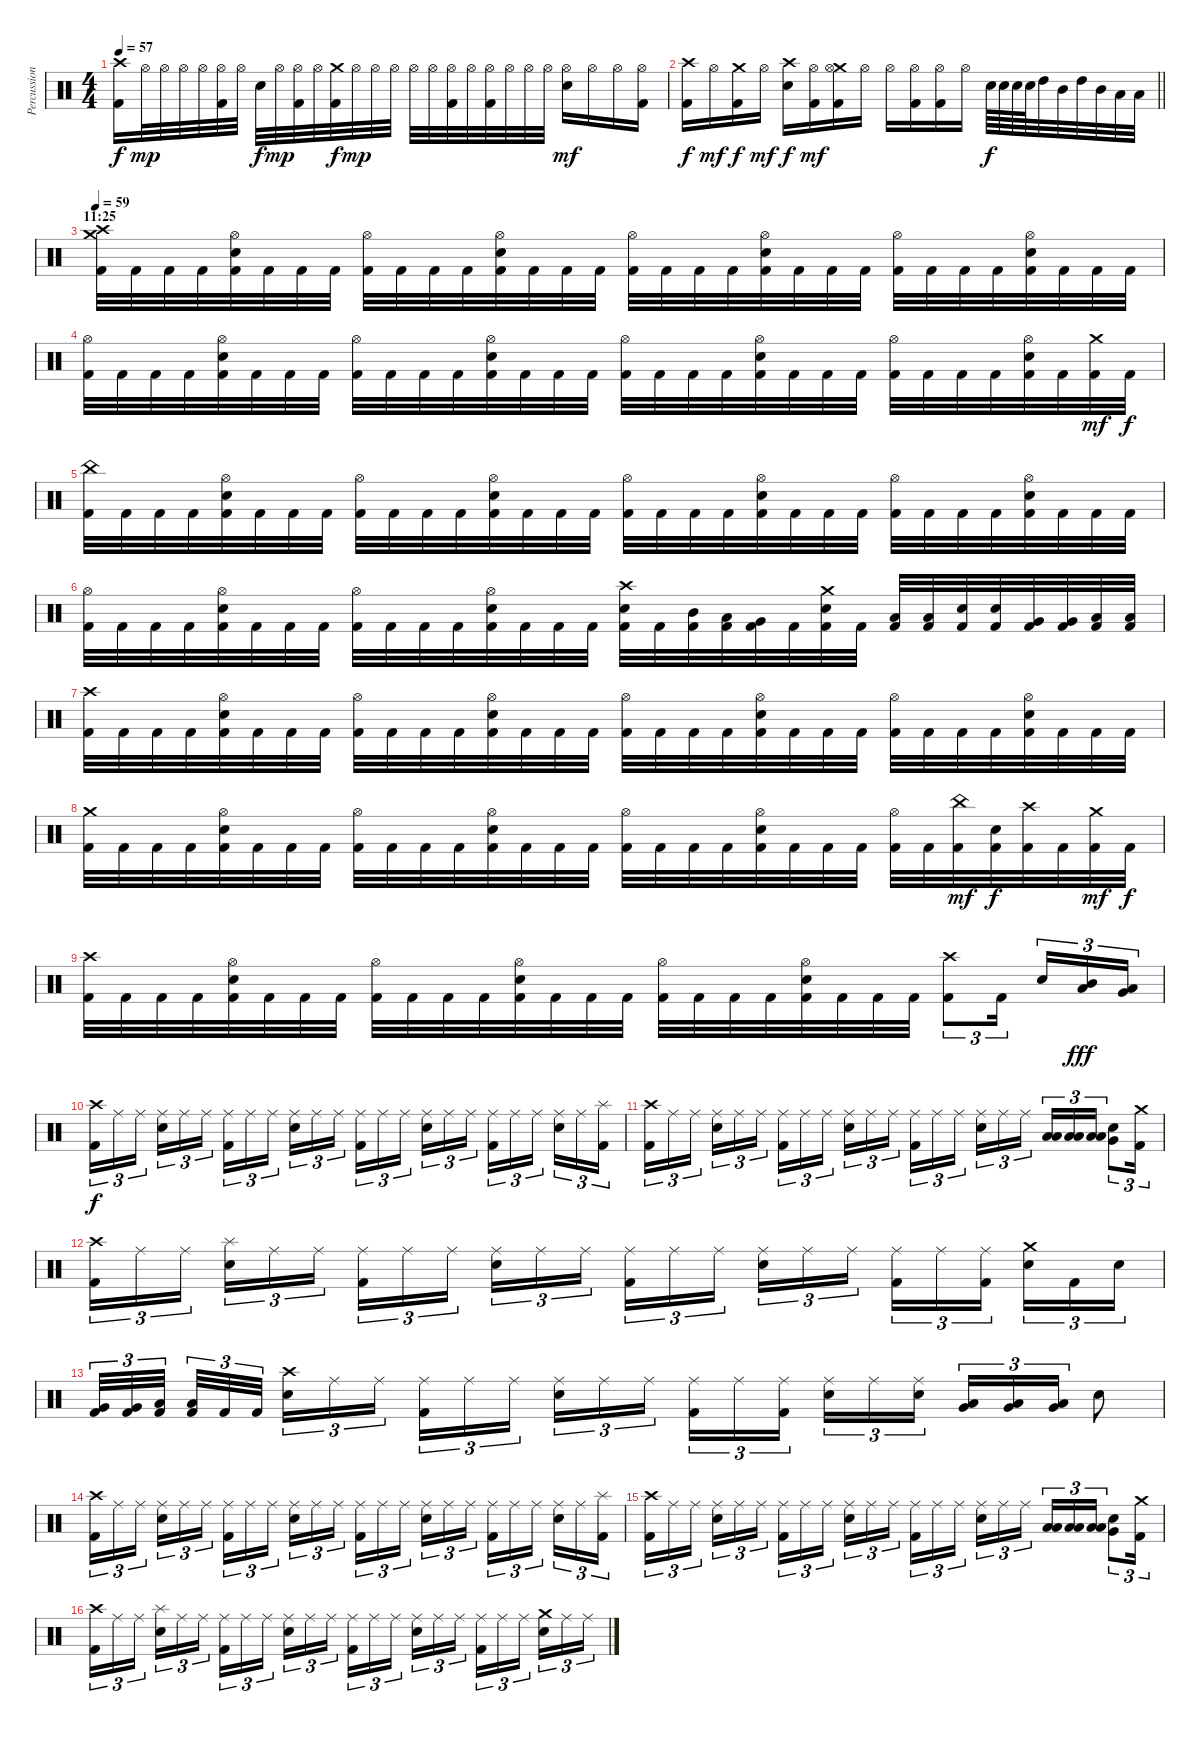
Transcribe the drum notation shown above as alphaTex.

\track ("Percussions" "Percussion") {instrument percussion}
\staff {score}
\articulation defaults
\ts (4 4)
\tempo 57
\clef neutral
\ks c
("Crash high (hit)" "Kick (hit) 2").16{dy f} "Hi-Hat (open)".32{dy mp} "Hi-Hat (open)".32 "Hi-Hat (open)".32 "Hi-Hat (open)".32 ("Hi-Hat (open)" "Kick (hit) 2").32 "Hi-Hat (open)".32 "Snare (hit) 2".32{dy f} "Hi-Hat (open)".32{dy mp} ("Hi-Hat (open)" "Kick (hit) 2").32 "Hi-Hat (open)".32 ("Crash medium (hit)" "Kick (hit) 2").32{dy f} "Hi-Hat (open)".32{dy mp} "Hi-Hat (open)".32 "Hi-Hat (open)".32 "Hi-Hat (open)".32 "Hi-Hat (open)".32 ("Hi-Hat (open)" "Kick (hit) 2").32 "Hi-Hat (open)".32 ("Hi-Hat (open)" "Kick (hit) 2").32 "Hi-Hat (open)".32 "Hi-Hat (open)".32 "Hi-Hat (open)".32 ("Hi-Hat (open)" "Snare (hit) 2").16{dy mf} "Hi-Hat (open)".16 "Hi-Hat (open)".16 ("Hi-Hat (open)" "Kick (hit) 2").16 |
\barLineRight lightlight
("Crash high (hit)" "Kick (hit) 2").16{dy f} "Hi-Hat (open)".16{dy mf} ("Crash medium (hit)" "Kick (hit) 2").16{dy f} "Hi-Hat (open)".16{dy mf} ("Crash high (hit)" "Snare (hit) 2").16{dy f} ("Hi-Hat (open)" "Kick (hit) 2").16{dy mf} ("Crash medium (hit)" "Hi-Hat (open)" "Kick (hit) 2").16 "Hi-Hat (open)".16 "Hi-Hat (open)".16 ("Hi-Hat (open)" "Kick (hit) 2").16 ("Hi-Hat (open)" "Kick (hit) 2").16 "Hi-Hat (open)".16 "Snare (hit) 2".64{dy f} "Snare (hit) 2".64 "Snare (hit) 2".64 "Snare (hit) 2".64 "High Tom (hit)".32 "Mid Tom (hit)".32 "High Tom (hit)".32 "Mid Tom (hit)".32 "Low Tom (hit)".32 "Low Tom (hit)".32 |
\section ("" "11:25")
\tempo 59
("Crash high (hit)" "Crash medium (hit)" "Kick (hit) 2").32 "Kick (hit) 2".32 "Kick (hit) 2".32 "Kick (hit) 2".32 ("Hi-Hat (open)" "Snare (hit) 2" "Kick (hit) 2").32 "Kick (hit) 2".32 "Kick (hit) 2".32 "Kick (hit) 2".32 ("Hi-Hat (open)" "Kick (hit) 2").32 "Kick (hit) 2".32 "Kick (hit) 2".32 "Kick (hit) 2".32 ("Hi-Hat (open)" "Snare (hit) 2" "Kick (hit) 2").32 "Kick (hit) 2".32 "Kick (hit) 2".32 "Kick (hit) 2".32 ("Hi-Hat (open)" "Kick (hit) 2").32 "Kick (hit) 2".32 "Kick (hit) 2".32 "Kick (hit) 2".32 ("Hi-Hat (open)" "Snare (hit) 2" "Kick (hit) 2").32 "Kick (hit) 2".32 "Kick (hit) 2".32 "Kick (hit) 2".32 ("Hi-Hat (open)" "Kick (hit) 2").32 "Kick (hit) 2".32 "Kick (hit) 2".32 "Kick (hit) 2".32 ("Hi-Hat (open)" "Snare (hit) 2" "Kick (hit) 2").32 "Kick (hit) 2".32 "Kick (hit) 2".32 "Kick (hit) 2".32 |
("Hi-Hat (open)" "Kick (hit) 2").32 "Kick (hit) 2".32 "Kick (hit) 2".32 "Kick (hit) 2".32 ("Hi-Hat (open)" "Snare (hit) 2" "Kick (hit) 2").32 "Kick (hit) 2".32 "Kick (hit) 2".32 "Kick (hit) 2".32 ("Hi-Hat (open)" "Kick (hit) 2").32 "Kick (hit) 2".32 "Kick (hit) 2".32 "Kick (hit) 2".32 ("Hi-Hat (open)" "Snare (hit) 2" "Kick (hit) 2").32 "Kick (hit) 2".32 "Kick (hit) 2".32 "Kick (hit) 2".32 ("Hi-Hat (open)" "Kick (hit) 2").32 "Kick (hit) 2".32 "Kick (hit) 2".32 "Kick (hit) 2".32 ("Hi-Hat (open)" "Snare (hit) 2" "Kick (hit) 2").32 "Kick (hit) 2".32 "Kick (hit) 2".32 "Kick (hit) 2".32 ("Hi-Hat (open)" "Kick (hit) 2").32 "Kick (hit) 2".32 "Kick (hit) 2".32 "Kick (hit) 2".32 ("Hi-Hat (open)" "Snare (hit) 2" "Kick (hit) 2").32 "Kick (hit) 2".32 ("Crash medium (hit)" "Kick (hit) 2").32{dy mf} "Kick (hit) 2".32{dy f} |
("China (hit)" "Kick (hit) 2").32 "Kick (hit) 2".32 "Kick (hit) 2".32 "Kick (hit) 2".32 ("Hi-Hat (open)" "Snare (hit) 2" "Kick (hit) 2").32 "Kick (hit) 2".32 "Kick (hit) 2".32 "Kick (hit) 2".32 ("Hi-Hat (open)" "Kick (hit) 2").32 "Kick (hit) 2".32 "Kick (hit) 2".32 "Kick (hit) 2".32 ("Hi-Hat (open)" "Snare (hit) 2" "Kick (hit) 2").32 "Kick (hit) 2".32 "Kick (hit) 2".32 "Kick (hit) 2".32 ("Hi-Hat (open)" "Kick (hit) 2").32 "Kick (hit) 2".32 "Kick (hit) 2".32 "Kick (hit) 2".32 ("Hi-Hat (open)" "Snare (hit) 2" "Kick (hit) 2").32 "Kick (hit) 2".32 "Kick (hit) 2".32 "Kick (hit) 2".32 ("Hi-Hat (open)" "Kick (hit) 2").32 "Kick (hit) 2".32 "Kick (hit) 2".32 "Kick (hit) 2".32 ("Hi-Hat (open)" "Snare (hit) 2" "Kick (hit) 2").32 "Kick (hit) 2".32 "Kick (hit) 2".32 "Kick (hit) 2".32 |
("Hi-Hat (open)" "Kick (hit) 2").32 "Kick (hit) 2".32 "Kick (hit) 2".32 "Kick (hit) 2".32 ("Hi-Hat (open)" "Snare (hit) 2" "Kick (hit) 2").32 "Kick (hit) 2".32 "Kick (hit) 2".32 "Kick (hit) 2".32 ("Hi-Hat (open)" "Kick (hit) 2").32 "Kick (hit) 2".32 "Kick (hit) 2".32 "Kick (hit) 2".32 ("Hi-Hat (open)" "Snare (hit) 2" "Kick (hit) 2").32 "Kick (hit) 2".32 "Kick (hit) 2".32 "Kick (hit) 2".32 ("Crash high (hit)" "Snare (hit) 2" "Kick (hit) 2").32 "Kick (hit) 2".32 ("Mid Tom (hit)" "Kick (hit) 2").32 ("Low Tom (hit)" "Kick (hit) 2").32 ("Very Low Tom (hit)" "Kick (hit) 2").32 "Kick (hit) 2".32 ("Crash medium (hit)" "Snare (hit) 2" "Kick (hit) 2").32 "Kick (hit) 2".32 ("Low Tom (hit)" "Kick (hit) 2").32 ("Low Tom (hit)" "Kick (hit) 2").32 ("Snare (hit) 2" "Kick (hit) 2").32 ("Snare (hit) 2" "Kick (hit) 2").32 ("Very Low Tom (hit)" "Kick (hit) 2").32 ("Very Low Tom (hit)" "Kick (hit) 2").32 ("Low Floor Tom (hit)" "Kick (hit) 2").32 ("Low Floor Tom (hit)" "Kick (hit) 2").32 |
("Crash high (hit)" "Kick (hit) 2").32 "Kick (hit) 2".32 "Kick (hit) 2".32 "Kick (hit) 2".32 ("Hi-Hat (open)" "Snare (hit) 2" "Kick (hit) 2").32 "Kick (hit) 2".32 "Kick (hit) 2".32 "Kick (hit) 2".32 ("Hi-Hat (open)" "Kick (hit) 2").32 "Kick (hit) 2".32 "Kick (hit) 2".32 "Kick (hit) 2".32 ("Hi-Hat (open)" "Snare (hit) 2" "Kick (hit) 2").32 "Kick (hit) 2".32 "Kick (hit) 2".32 "Kick (hit) 2".32 ("Hi-Hat (open)" "Kick (hit) 2").32 "Kick (hit) 2".32 "Kick (hit) 2".32 "Kick (hit) 2".32 ("Hi-Hat (open)" "Snare (hit) 2" "Kick (hit) 2").32 "Kick (hit) 2".32 "Kick (hit) 2".32 "Kick (hit) 2".32 ("Hi-Hat (open)" "Kick (hit) 2").32 "Kick (hit) 2".32 "Kick (hit) 2".32 "Kick (hit) 2".32 ("Hi-Hat (open)" "Snare (hit) 2" "Kick (hit) 2").32 "Kick (hit) 2".32 "Kick (hit) 2".32 "Kick (hit) 2".32 |
("Crash medium (hit)" "Kick (hit) 2").32 "Kick (hit) 2".32 "Kick (hit) 2".32 "Kick (hit) 2".32 ("Hi-Hat (open)" "Snare (hit) 2" "Kick (hit) 2").32 "Kick (hit) 2".32 "Kick (hit) 2".32 "Kick (hit) 2".32 ("Hi-Hat (open)" "Kick (hit) 2").32 "Kick (hit) 2".32 "Kick (hit) 2".32 "Kick (hit) 2".32 ("Hi-Hat (open)" "Snare (hit) 2" "Kick (hit) 2").32 "Kick (hit) 2".32 "Kick (hit) 2".32 "Kick (hit) 2".32 ("Hi-Hat (open)" "Kick (hit) 2").32 "Kick (hit) 2".32 "Kick (hit) 2".32 "Kick (hit) 2".32 ("Hi-Hat (open)" "Snare (hit) 2" "Kick (hit) 2").32 "Kick (hit) 2".32 "Kick (hit) 2".32 "Kick (hit) 2".32 ("Hi-Hat (open)" "Kick (hit) 2").32 "Kick (hit) 2".32 ("China (hit)" "Kick (hit) 2").32{dy mf} ("Snare (hit) 2" "Kick (hit) 2").32{dy f} ("Crash high (hit)" "Kick (hit) 2").32 "Kick (hit) 2".32 ("Crash medium (hit)" "Kick (hit) 2").32{dy mf} "Kick (hit) 2".32{dy f} |
("Crash high (hit)" "Kick (hit) 2").32 "Kick (hit) 2".32 "Kick (hit) 2".32 "Kick (hit) 2".32 ("Hi-Hat (open)" "Snare (hit) 2" "Kick (hit) 2").32 "Kick (hit) 2".32 "Kick (hit) 2".32 "Kick (hit) 2".32 ("Hi-Hat (open)" "Kick (hit) 2").32 "Kick (hit) 2".32 "Kick (hit) 2".32 "Kick (hit) 2".32 ("Hi-Hat (open)" "Snare (hit) 2" "Kick (hit) 2").32 "Kick (hit) 2".32 "Kick (hit) 2".32 "Kick (hit) 2".32 ("Hi-Hat (open)" "Kick (hit) 2").32 "Kick (hit) 2".32 "Kick (hit) 2".32 "Kick (hit) 2".32 ("Hi-Hat (open)" "Snare (hit) 2" "Kick (hit) 2").32 "Kick (hit) 2".32 "Kick (hit) 2".32 "Kick (hit) 2".32 ("Crash high (hit)" "Kick (hit) 2").8{tu (3 2)} "Kick (hit) 2".16{tu (3 2) beam splitsecondary} "Snare (hit) 2".16{tu (3 2)} ("Low Tom (hit)" "Mid Tom (hit)").16{tu (3 2) dy fff} ("Very Low Tom (hit)" "Low Tom (hit)").16{tu (3 2)} |
("Crash high (hit)" "Kick (hit) 2").16{tu (3 2) dy f} "Ride (middle)".16{tu (3 2)} "Ride (middle)".16{tu (3 2) beam splitsecondary} ("Ride (middle)" "Snare (hit) 2").16{tu (3 2)} "Ride (middle)".16{tu (3 2)} "Ride (middle)".16{tu (3 2)} ("Ride (middle)" "Kick (hit) 2").16{tu (3 2)} "Ride (middle)".16{tu (3 2)} "Ride (middle)".16{tu (3 2) beam splitsecondary} ("Ride (middle)" "Snare (hit) 2").16{tu (3 2)} "Ride (middle)".16{tu (3 2)} "Ride (middle)".16{tu (3 2)} ("Ride (middle)" "Kick (hit) 2").16{tu (3 2)} "Ride (middle)".16{tu (3 2)} "Ride (middle)".16{tu (3 2) beam splitsecondary} ("Ride (middle)" "Snare (hit) 2").16{tu (3 2)} "Ride (middle)".16{tu (3 2)} "Ride (middle)".16{tu (3 2)} ("Ride (middle)" "Kick (hit) 2").16{tu (3 2)} "Ride (middle)".16{tu (3 2)} "Ride (middle)".16{tu (3 2) beam splitsecondary} ("Ride (middle)" "Snare (hit) 2").16{tu (3 2)} "Ride (middle)".16{tu (3 2)} ("Splash (hit)" "Kick (hit) 2").16{tu (3 2)} |
("Crash high (hit)" "Kick (hit) 2").16{tu (3 2)} "Ride (middle)".16{tu (3 2)} "Ride (middle)".16{tu (3 2) beam splitsecondary} ("Ride (middle)" "Snare (hit) 2").16{tu (3 2)} "Ride (middle)".16{tu (3 2)} "Ride (middle)".16{tu (3 2)} ("Ride (middle)" "Kick (hit) 2").16{tu (3 2)} "Ride (middle)".16{tu (3 2)} "Ride (middle)".16{tu (3 2) beam splitsecondary} ("Ride (middle)" "Snare (hit) 2").16{tu (3 2)} "Ride (middle)".16{tu (3 2)} "Ride (middle)".16{tu (3 2)} ("Ride (middle)" "Kick (hit) 2").16{tu (3 2)} "Ride (middle)".16{tu (3 2)} "Ride (middle)".16{tu (3 2) beam splitsecondary} ("Ride (middle)" "Snare (hit) 2").16{tu (3 2)} "Ride (middle)".16{tu (3 2)} "Ride (middle)".16{tu (3 2)} ("Low Floor Tom (hit)" "Low Floor Tom (hit)").16{tu (3 2)} ("Low Floor Tom (hit)" "Low Floor Tom (hit)").16{tu (3 2)} ("Low Floor Tom (hit)" "Low Floor Tom (hit)").16{tu (3 2)} ("Very Low Tom (hit)" "Snare (hit) 2").8{tu (3 2)} ("Crash medium (hit)" "Kick (hit) 2").16{tu (3 2)} |
("Crash high (hit)" "Kick (hit) 2").16{tu (3 2)} "Ride (middle)".16{tu (3 2)} "Ride (middle)".16{tu (3 2) beam splitsecondary} ("Splash (hit)" "Snare (hit) 2").16{tu (3 2)} "Ride (middle)".16{tu (3 2)} "Ride (middle)".16{tu (3 2)} ("Ride (middle)" "Kick (hit) 2").16{tu (3 2)} "Ride (middle)".16{tu (3 2)} "Ride (middle)".16{tu (3 2) beam splitsecondary} ("Ride (middle)" "Snare (hit) 2").16{tu (3 2)} "Ride (middle)".16{tu (3 2)} "Ride (middle)".16{tu (3 2)} ("Ride (middle)" "Kick (hit) 2").16{tu (3 2)} "Ride (middle)".16{tu (3 2)} "Ride (middle)".16{tu (3 2) beam splitsecondary} ("Ride (middle)" "Snare (hit) 2").16{tu (3 2)} "Ride (middle)".16{tu (3 2)} "Ride (middle)".16{tu (3 2)} ("Ride (middle)" "Kick (hit) 2").16{tu (3 2)} "Ride (middle)".16{tu (3 2)} ("Ride (middle)" "Kick (hit) 2").16{tu (3 2) beam splitsecondary} ("Crash medium (hit)" "Snare (hit) 2").16{tu (3 2)} "Kick (hit) 2".16{tu (3 2)} "Snare (hit) 2".16{tu (3 2)} |
("Very Low Tom (hit)" "Kick (hit) 2").32{tu (3 2)} ("Very Low Tom (hit)" "Kick (hit) 2").32{tu (3 2)} ("Low Floor Tom (hit)" "Kick (hit) 2").32{tu (3 2) beam splitsecondary} ("Low Floor Tom (hit)" "Kick (hit) 2").32{tu (3 2)} "Kick (hit) 2".32{tu (3 2)} "Kick (hit) 2".32{tu (3 2) beam splitsecondary} ("Crash high (hit)" "Snare (hit) 2").16{tu (3 2)} "Ride (middle)".16{tu (3 2)} "Ride (middle)".16{tu (3 2)} ("Ride (middle)" "Kick (hit) 2").16{tu (3 2)} "Ride (middle)".16{tu (3 2)} "Ride (middle)".16{tu (3 2) beam splitsecondary} ("Ride (middle)" "Snare (hit) 2").16{tu (3 2)} "Ride (middle)".16{tu (3 2)} "Ride (middle)".16{tu (3 2)} ("Ride (middle)" "Kick (hit) 2").16{tu (3 2)} "Ride (middle)".16{tu (3 2)} ("Ride (middle)" "Kick (hit) 2").16{tu (3 2) beam splitsecondary} ("Ride (middle)" "Snare (hit) 2").16{tu (3 2)} "Ride (middle)".16{tu (3 2)} ("Ride (middle)" "Snare (hit) 2").16{tu (3 2)} ("Low Floor Tom (hit)" "Very Low Tom (hit)").16{tu (3 2)} ("Low Floor Tom (hit)" "Very Low Tom (hit)").16{tu (3 2)} ("Low Floor Tom (hit)" "Very Low Tom (hit)").16{tu (3 2)} "Snare (hit) 2".8 |
("Crash high (hit)" "Kick (hit) 2").16{tu (3 2)} "Ride (middle)".16{tu (3 2)} "Ride (middle)".16{tu (3 2) beam splitsecondary} ("Ride (middle)" "Snare (hit) 2").16{tu (3 2)} "Ride (middle)".16{tu (3 2)} "Ride (middle)".16{tu (3 2)} ("Ride (middle)" "Kick (hit) 2").16{tu (3 2)} "Ride (middle)".16{tu (3 2)} "Ride (middle)".16{tu (3 2) beam splitsecondary} ("Ride (middle)" "Snare (hit) 2").16{tu (3 2)} "Ride (middle)".16{tu (3 2)} "Ride (middle)".16{tu (3 2)} ("Ride (middle)" "Kick (hit) 2").16{tu (3 2)} "Ride (middle)".16{tu (3 2)} "Ride (middle)".16{tu (3 2) beam splitsecondary} ("Ride (middle)" "Snare (hit) 2").16{tu (3 2)} "Ride (middle)".16{tu (3 2)} "Ride (middle)".16{tu (3 2)} ("Ride (middle)" "Kick (hit) 2").16{tu (3 2)} "Ride (middle)".16{tu (3 2)} "Ride (middle)".16{tu (3 2) beam splitsecondary} ("Ride (middle)" "Snare (hit) 2").16{tu (3 2)} "Ride (middle)".16{tu (3 2)} ("Splash (hit)" "Kick (hit) 2").16{tu (3 2)} |
("Crash high (hit)" "Kick (hit) 2").16{tu (3 2)} "Ride (middle)".16{tu (3 2)} "Ride (middle)".16{tu (3 2) beam splitsecondary} ("Ride (middle)" "Snare (hit) 2").16{tu (3 2)} "Ride (middle)".16{tu (3 2)} "Ride (middle)".16{tu (3 2)} ("Ride (middle)" "Kick (hit) 2").16{tu (3 2)} "Ride (middle)".16{tu (3 2)} "Ride (middle)".16{tu (3 2) beam splitsecondary} ("Ride (middle)" "Snare (hit) 2").16{tu (3 2)} "Ride (middle)".16{tu (3 2)} "Ride (middle)".16{tu (3 2)} ("Ride (middle)" "Kick (hit) 2").16{tu (3 2)} "Ride (middle)".16{tu (3 2)} "Ride (middle)".16{tu (3 2) beam splitsecondary} ("Ride (middle)" "Snare (hit) 2").16{tu (3 2)} "Ride (middle)".16{tu (3 2)} "Ride (middle)".16{tu (3 2)} ("Low Floor Tom (hit)" "Low Floor Tom (hit)").16{tu (3 2)} ("Low Floor Tom (hit)" "Low Floor Tom (hit)").16{tu (3 2)} ("Low Floor Tom (hit)" "Low Floor Tom (hit)").16{tu (3 2)} ("Very Low Tom (hit)" "Snare (hit) 2").8{tu (3 2)} ("Crash medium (hit)" "Kick (hit) 2").16{tu (3 2)} |
("Crash high (hit)" "Kick (hit) 2").16{tu (3 2)} "Ride (middle)".16{tu (3 2)} "Ride (middle)".16{tu (3 2) beam splitsecondary} ("Splash (hit)" "Snare (hit) 2").16{tu (3 2)} "Ride (middle)".16{tu (3 2)} "Ride (middle)".16{tu (3 2)} ("Ride (middle)" "Kick (hit) 2").16{tu (3 2)} "Ride (middle)".16{tu (3 2)} "Ride (middle)".16{tu (3 2) beam splitsecondary} ("Ride (middle)" "Snare (hit) 2").16{tu (3 2)} "Ride (middle)".16{tu (3 2)} "Ride (middle)".16{tu (3 2)} ("Ride (middle)" "Kick (hit) 2").16{tu (3 2)} "Ride (middle)".16{tu (3 2)} "Ride (middle)".16{tu (3 2) beam splitsecondary} ("Ride (middle)" "Snare (hit) 2").16{tu (3 2)} "Ride (middle)".16{tu (3 2)} "Ride (middle)".16{tu (3 2)} ("Ride (middle)" "Kick (hit) 2").16{tu (3 2)} "Ride (middle)".16{tu (3 2)} "Ride (middle)".16{tu (3 2) beam splitsecondary} ("Crash medium (hit)" "Snare (hit) 2").16{tu (3 2)} "Ride (middle)".16{tu (3 2)} "Ride (middle)".16{tu (3 2)}
